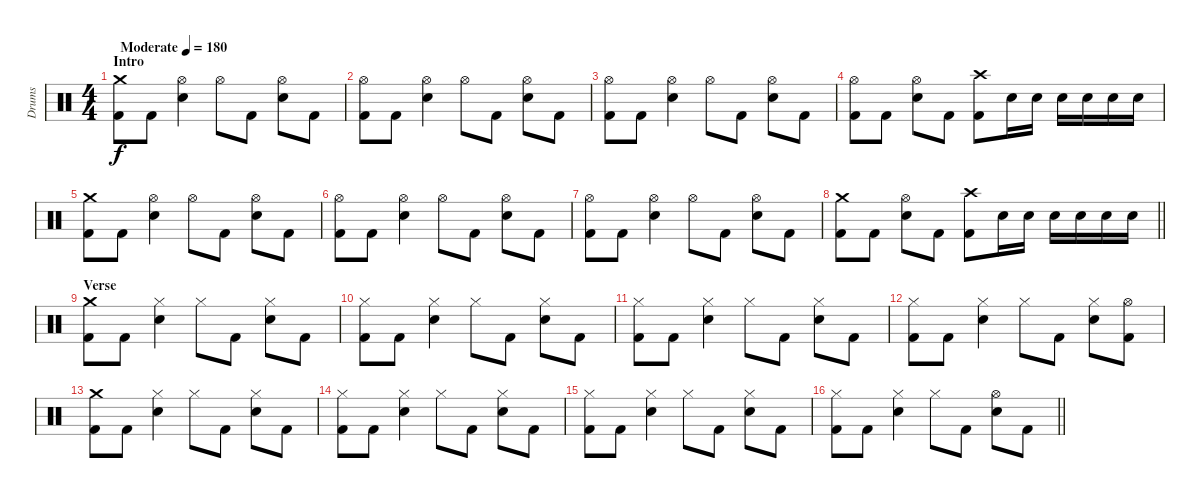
\track ("Drums" "Drums") {instrument percussion}
\staff {score}
\articulation defaults
\ts (4 4)
\section ("" "Intro")
\tempo (180 "Moderate")
\clef neutral
\ks c
("Crash medium (hit)" "Kick (hit) 2").8{dy f} "Kick (hit) 2".8 ("Hi-Hat (open)" "Electric Snare (hit)").4 "Hi-Hat (open)".8 "Kick (hit) 2".8 ("Hi-Hat (open)" "Electric Snare (hit)").8 "Kick (hit) 2".8 |
("Hi-Hat (open)" "Kick (hit) 2").8 "Kick (hit) 2".8 ("Hi-Hat (open)" "Electric Snare (hit)").4 "Hi-Hat (open)".8 "Kick (hit) 2".8 ("Hi-Hat (open)" "Electric Snare (hit)").8 "Kick (hit) 2".8 |
("Hi-Hat (open)" "Kick (hit) 2").8 "Kick (hit) 2".8 ("Hi-Hat (open)" "Electric Snare (hit)").4 "Hi-Hat (open)".8 "Kick (hit) 2".8 ("Hi-Hat (open)" "Electric Snare (hit)").8 "Kick (hit) 2".8 |
("Hi-Hat (open)" "Kick (hit) 2").8 "Kick (hit) 2".8 ("Hi-Hat (open)" "Electric Snare (hit)").8 "Kick (hit) 2".8 ("Crash high (hit)" "Kick (hit) 2").8 "Electric Snare (hit)".16 "Electric Snare (hit)".16 "Electric Snare (hit)".16 "Electric Snare (hit)".16 "Electric Snare (hit)".16 "Electric Snare (hit)".16 |
("Crash medium (hit)" "Kick (hit) 2").8 "Kick (hit) 2".8 ("Hi-Hat (open)" "Electric Snare (hit)").4 "Hi-Hat (open)".8 "Kick (hit) 2".8 ("Hi-Hat (open)" "Electric Snare (hit)").8 "Kick (hit) 2".8 |
("Hi-Hat (open)" "Kick (hit) 2").8 "Kick (hit) 2".8 ("Hi-Hat (open)" "Electric Snare (hit)").4 "Hi-Hat (open)".8 "Kick (hit) 2".8 ("Hi-Hat (open)" "Electric Snare (hit)").8 "Kick (hit) 2".8 |
("Hi-Hat (open)" "Kick (hit) 2").8 "Kick (hit) 2".8 ("Hi-Hat (open)" "Electric Snare (hit)").4 "Hi-Hat (open)".8 "Kick (hit) 2".8 ("Hi-Hat (open)" "Electric Snare (hit)").8 "Kick (hit) 2".8 |
\barLineRight lightlight
("Crash medium (hit)" "Kick (hit) 2").8 "Kick (hit) 2".8 ("Hi-Hat (open)" "Electric Snare (hit)").8 "Kick (hit) 2".8 ("Crash high (hit)" "Kick (hit) 2").8 "Electric Snare (hit)".16 "Electric Snare (hit)".16 "Electric Snare (hit)".16 "Electric Snare (hit)".16 "Electric Snare (hit)".16 "Electric Snare (hit)".16 |
\section ("" "Verse")
("Crash medium (hit)" "Kick (hit) 2").8 "Kick (hit) 2".8 ("Hi-Hat (closed)" "Electric Snare (hit)").4 "Hi-Hat (closed)".8 "Kick (hit) 2".8 ("Hi-Hat (closed)" "Electric Snare (hit)").8 "Kick (hit) 2".8 |
("Hi-Hat (closed)" "Kick (hit) 2").8 "Kick (hit) 2".8 ("Hi-Hat (closed)" "Electric Snare (hit)").4 "Hi-Hat (closed)".8 "Kick (hit) 2".8 ("Hi-Hat (closed)" "Electric Snare (hit)").8 "Kick (hit) 2".8 |
("Hi-Hat (closed)" "Kick (hit) 2").8 "Kick (hit) 2".8 ("Hi-Hat (closed)" "Electric Snare (hit)").4 "Hi-Hat (closed)".8 "Kick (hit) 2".8 ("Hi-Hat (closed)" "Electric Snare (hit)").8 "Kick (hit) 2".8 |
("Hi-Hat (closed)" "Kick (hit) 2").8 "Kick (hit) 2".8 ("Hi-Hat (closed)" "Electric Snare (hit)").4 "Hi-Hat (closed)".8 "Kick (hit) 2".8 ("Hi-Hat (closed)" "Electric Snare (hit)").8 ("Hi-Hat (open)" "Kick (hit) 2").8 |
("Crash medium (hit)" "Kick (hit) 2").8 "Kick (hit) 2".8 ("Hi-Hat (closed)" "Electric Snare (hit)").4 "Hi-Hat (closed)".8 "Kick (hit) 2".8 ("Hi-Hat (closed)" "Electric Snare (hit)").8 "Kick (hit) 2".8 |
("Hi-Hat (closed)" "Kick (hit) 2").8 "Kick (hit) 2".8 ("Hi-Hat (closed)" "Electric Snare (hit)").4 "Hi-Hat (closed)".8 "Kick (hit) 2".8 ("Hi-Hat (closed)" "Electric Snare (hit)").8 "Kick (hit) 2".8 |
("Hi-Hat (closed)" "Kick (hit) 2").8 "Kick (hit) 2".8 ("Hi-Hat (closed)" "Electric Snare (hit)").4 "Hi-Hat (closed)".8 "Kick (hit) 2".8 ("Hi-Hat (closed)" "Electric Snare (hit)").8 "Kick (hit) 2".8 |
\barLineRight lightlight
("Hi-Hat (closed)" "Kick (hit) 2").8 "Kick (hit) 2".8 ("Hi-Hat (closed)" "Electric Snare (hit)").4 "Hi-Hat (closed)".8 "Kick (hit) 2".8 ("Hi-Hat (open)" "Electric Snare (hit)").8 "Kick (hit) 2".8
